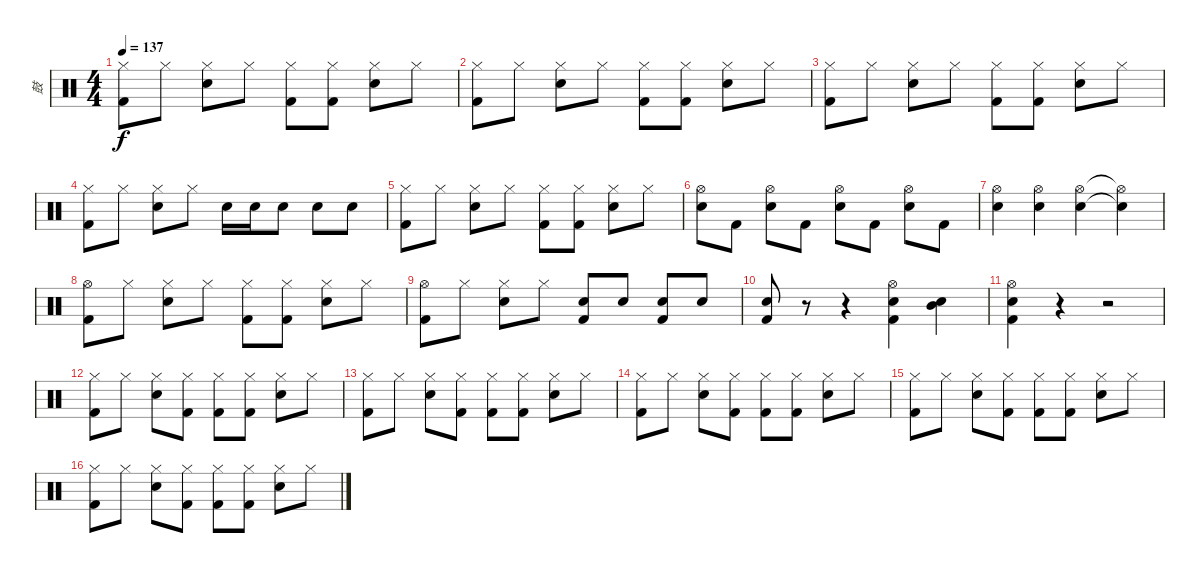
\track ("鼓" "鼓") {instrument percussion}
\staff {score}
\articulation defaults
\ts (4 4)
\tempo 137
\clef neutral
\ks c
("Hi-Hat (closed)" "Kick (hit) 2").8{dy f} "Hi-Hat (closed)".8 ("Hi-Hat (closed)" "Snare (hit) 2").8 "Hi-Hat (closed)".8 ("Hi-Hat (closed)" "Kick (hit) 2").8 ("Hi-Hat (closed)" "Kick (hit) 2").8 ("Hi-Hat (closed)" "Snare (hit) 2").8 "Hi-Hat (closed)".8 |
("Hi-Hat (closed)" "Kick (hit) 2").8 "Hi-Hat (closed)".8 ("Hi-Hat (closed)" "Snare (hit) 2").8 "Hi-Hat (closed)".8 ("Hi-Hat (closed)" "Kick (hit) 2").8 ("Hi-Hat (closed)" "Kick (hit) 2").8 ("Hi-Hat (closed)" "Snare (hit) 2").8 "Hi-Hat (closed)".8 |
("Hi-Hat (closed)" "Kick (hit) 2").8 "Hi-Hat (closed)".8 ("Hi-Hat (closed)" "Snare (hit) 2").8 "Hi-Hat (closed)".8 ("Hi-Hat (closed)" "Kick (hit) 2").8 ("Hi-Hat (closed)" "Kick (hit) 2").8 ("Hi-Hat (closed)" "Snare (hit) 2").8 "Hi-Hat (closed)".8 |
("Hi-Hat (closed)" "Kick (hit) 2").8 "Hi-Hat (closed)".8 ("Hi-Hat (closed)" "Snare (hit) 2").8 "Hi-Hat (closed)".8 "Snare (hit) 2".16 "Snare (hit) 2".16 "Snare (hit) 2".8 "Snare (hit) 2".8 "Snare (hit) 2".8 |
("Hi-Hat (closed)" "Kick (hit) 2").8 "Hi-Hat (closed)".8 ("Hi-Hat (closed)" "Snare (hit) 2").8 "Hi-Hat (closed)".8 ("Hi-Hat (closed)" "Kick (hit) 2").8 ("Hi-Hat (closed)" "Kick (hit) 2").8 ("Hi-Hat (closed)" "Snare (hit) 2").8 "Hi-Hat (closed)".8 |
("Hi-Hat (open)" "Snare (hit) 2").8 "Kick (hit) 2".8 ("Hi-Hat (open)" "Snare (hit) 2").8 "Kick (hit) 2".8 ("Hi-Hat (open)" "Snare (hit) 2").8 "Kick (hit) 2".8 ("Hi-Hat (open)" "Snare (hit) 2").8 "Kick (hit) 2".8 |
("Hi-Hat (open)" "Snare (hit) 2").4 ("Hi-Hat (open)" "Snare (hit) 2").4 ("Hi-Hat (open)" "Snare (hit) 2").4 ("Hi-Hat (open)"{t} "Snare (hit) 2"{t}).4 |
("Hi-Hat (open)" "Kick (hit) 2").8 "Hi-Hat (closed)".8 ("Hi-Hat (closed)" "Snare (hit) 2").8 "Hi-Hat (closed)".8 ("Hi-Hat (closed)" "Kick (hit) 2").8 ("Hi-Hat (closed)" "Kick (hit) 2").8 ("Hi-Hat (closed)" "Snare (hit) 2").8 "Hi-Hat (closed)".8 |
("Hi-Hat (open)" "Kick (hit) 2").8 "Hi-Hat (closed)".8 ("Hi-Hat (closed)" "Snare (hit) 2").8 "Hi-Hat (closed)".8 ("Snare (hit) 2" "Kick (hit) 2").8 "Snare (hit) 2".8 ("Snare (hit) 2" "Kick (hit) 2").8 "Snare (hit) 2".8 |
("Snare (hit) 2" "Kick (hit) 2").8 r.8 r.4 ("Hi-Hat (open)" "Snare (hit) 2" "Kick (hit) 2").4 ("Mid Tom (hit)" "Snare (hit) 2").4 |
("Hi-Hat (open)" "Snare (hit) 2" "Kick (hit) 2").4 r.4 r.2 |
("Hi-Hat (closed)" "Kick (hit) 2").8 "Hi-Hat (closed)".8 ("Hi-Hat (closed)" "Snare (hit) 2").8 ("Hi-Hat (closed)" "Kick (hit) 2").8 ("Hi-Hat (closed)" "Kick (hit) 2").8 ("Hi-Hat (closed)" "Kick (hit) 2").8 ("Hi-Hat (closed)" "Snare (hit) 2").8 "Hi-Hat (closed)".8 |
("Hi-Hat (closed)" "Kick (hit) 2").8 "Hi-Hat (closed)".8 ("Hi-Hat (closed)" "Snare (hit) 2").8 ("Hi-Hat (closed)" "Kick (hit) 2").8 ("Hi-Hat (closed)" "Kick (hit) 2").8 ("Hi-Hat (closed)" "Kick (hit) 2").8 ("Hi-Hat (closed)" "Snare (hit) 2").8 "Hi-Hat (closed)".8 |
("Hi-Hat (closed)" "Kick (hit) 2").8 "Hi-Hat (closed)".8 ("Hi-Hat (closed)" "Snare (hit) 2").8 ("Hi-Hat (closed)" "Kick (hit) 2").8 ("Hi-Hat (closed)" "Kick (hit) 2").8 ("Hi-Hat (closed)" "Kick (hit) 2").8 ("Hi-Hat (closed)" "Snare (hit) 2").8 "Hi-Hat (closed)".8 |
("Hi-Hat (closed)" "Kick (hit) 2").8 "Hi-Hat (closed)".8 ("Hi-Hat (closed)" "Snare (hit) 2").8 ("Hi-Hat (closed)" "Kick (hit) 2").8 ("Hi-Hat (closed)" "Kick (hit) 2").8 ("Hi-Hat (closed)" "Kick (hit) 2").8 ("Hi-Hat (closed)" "Snare (hit) 2").8 "Hi-Hat (closed)".8 |
("Hi-Hat (closed)" "Kick (hit) 2").8 "Hi-Hat (closed)".8 ("Hi-Hat (closed)" "Snare (hit) 2").8 ("Hi-Hat (closed)" "Kick (hit) 2").8 ("Hi-Hat (closed)" "Kick (hit) 2").8 ("Hi-Hat (closed)" "Kick (hit) 2").8 ("Hi-Hat (closed)" "Snare (hit) 2").8 "Hi-Hat (closed)".8
